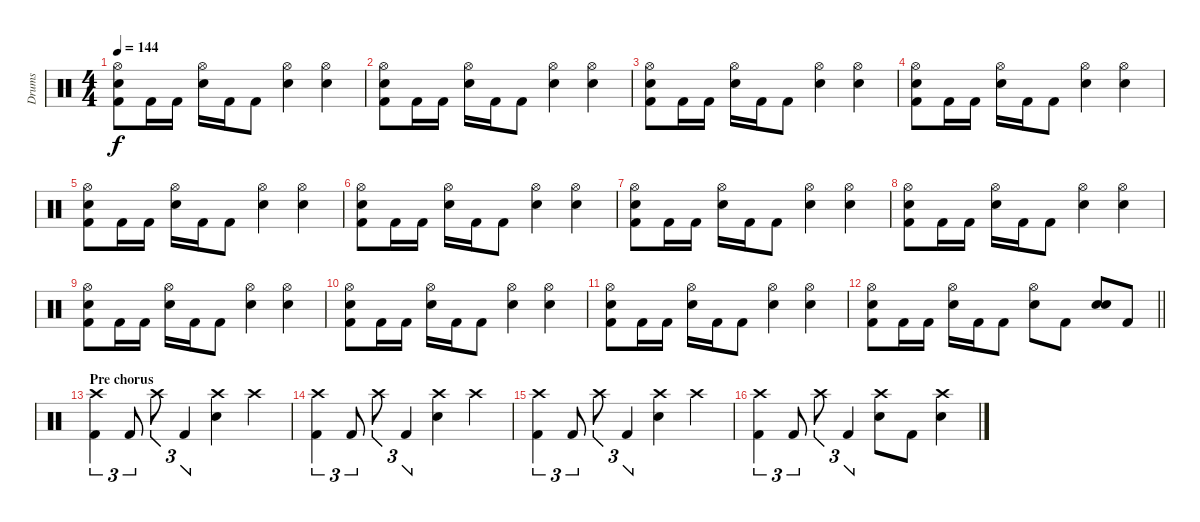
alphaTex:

\track ("Drums" "Drums") {instrument percussion}
\staff {score}
\articulation defaults
\ts (4 4)
\tempo 144
\clef neutral
\ks c
("Hi-Hat (open)" "Snare (hit) 2" "Kick (hit) 2").8{dy f} "Kick (hit) 2".16 "Kick (hit) 2".16 ("Hi-Hat (open)" "Snare (hit) 2").16 "Kick (hit) 2".16 "Kick (hit) 2".8 ("Hi-Hat (open)" "Snare (hit) 2").4 ("Hi-Hat (open)" "Snare (hit) 2").4 |
("Hi-Hat (open)" "Snare (hit) 2" "Kick (hit) 2").8 "Kick (hit) 2".16 "Kick (hit) 2".16 ("Hi-Hat (open)" "Snare (hit) 2").16 "Kick (hit) 2".16 "Kick (hit) 2".8 ("Hi-Hat (open)" "Snare (hit) 2").4 ("Hi-Hat (open)" "Snare (hit) 2").4 |
("Hi-Hat (open)" "Snare (hit) 2" "Kick (hit) 2").8 "Kick (hit) 2".16 "Kick (hit) 2".16 ("Hi-Hat (open)" "Snare (hit) 2").16 "Kick (hit) 2".16 "Kick (hit) 2".8 ("Hi-Hat (open)" "Snare (hit) 2").4 ("Hi-Hat (open)" "Snare (hit) 2").4 |
("Hi-Hat (open)" "Snare (hit) 2" "Kick (hit) 2").8 "Kick (hit) 2".16 "Kick (hit) 2".16 ("Hi-Hat (open)" "Snare (hit) 2").16 "Kick (hit) 2".16 "Kick (hit) 2".8 ("Hi-Hat (open)" "Snare (hit) 2").4 ("Hi-Hat (open)" "Snare (hit) 2").4 |
("Hi-Hat (open)" "Snare (hit) 2" "Kick (hit) 2").8 "Kick (hit) 2".16 "Kick (hit) 2".16 ("Hi-Hat (open)" "Snare (hit) 2").16 "Kick (hit) 2".16 "Kick (hit) 2".8 ("Hi-Hat (open)" "Snare (hit) 2").4 ("Hi-Hat (open)" "Snare (hit) 2").4 |
("Hi-Hat (open)" "Snare (hit) 2" "Kick (hit) 2").8 "Kick (hit) 2".16 "Kick (hit) 2".16 ("Hi-Hat (open)" "Snare (hit) 2").16 "Kick (hit) 2".16 "Kick (hit) 2".8 ("Hi-Hat (open)" "Snare (hit) 2").4 ("Hi-Hat (open)" "Snare (hit) 2").4 |
("Hi-Hat (open)" "Snare (hit) 2" "Kick (hit) 2").8 "Kick (hit) 2".16 "Kick (hit) 2".16 ("Hi-Hat (open)" "Snare (hit) 2").16 "Kick (hit) 2".16 "Kick (hit) 2".8 ("Hi-Hat (open)" "Snare (hit) 2").4 ("Hi-Hat (open)" "Snare (hit) 2").4 |
("Hi-Hat (open)" "Snare (hit) 2" "Kick (hit) 2").8 "Kick (hit) 2".16 "Kick (hit) 2".16 ("Hi-Hat (open)" "Snare (hit) 2").16 "Kick (hit) 2".16 "Kick (hit) 2".8 ("Hi-Hat (open)" "Snare (hit) 2").4 ("Hi-Hat (open)" "Snare (hit) 2").4 |
("Hi-Hat (open)" "Snare (hit) 2" "Kick (hit) 2").8 "Kick (hit) 2".16 "Kick (hit) 2".16 ("Hi-Hat (open)" "Snare (hit) 2").16 "Kick (hit) 2".16 "Kick (hit) 2".8 ("Hi-Hat (open)" "Snare (hit) 2").4 ("Hi-Hat (open)" "Snare (hit) 2").4 |
("Hi-Hat (open)" "Snare (hit) 2" "Kick (hit) 2").8 "Kick (hit) 2".16 "Kick (hit) 2".16 ("Hi-Hat (open)" "Snare (hit) 2").16 "Kick (hit) 2".16 "Kick (hit) 2".8 ("Hi-Hat (open)" "Snare (hit) 2").4 ("Hi-Hat (open)" "Snare (hit) 2").4 |
("Hi-Hat (open)" "Snare (hit) 2" "Kick (hit) 2").8 "Kick (hit) 2".16 "Kick (hit) 2".16 ("Hi-Hat (open)" "Snare (hit) 2").16 "Kick (hit) 2".16 "Kick (hit) 2".8 ("Hi-Hat (open)" "Snare (hit) 2").4 ("Hi-Hat (open)" "Snare (hit) 2").4 |
\barLineRight lightlight
("Hi-Hat (open)" "Snare (hit) 2" "Kick (hit) 2").8 "Kick (hit) 2".16 "Kick (hit) 2".16 ("Hi-Hat (open)" "Snare (hit) 2").16 "Kick (hit) 2".16 "Kick (hit) 2".8 ("Hi-Hat (open)" "Snare (hit) 2").8 "Kick (hit) 2".8 ("Snare (hit) 2" "Snare (hit) 2").8{bd 120} "Kick (hit) 2".8 |
\section ("" "Pre chorus")
("Crash high (hit)" "Kick (hit) 2").4{tu (3 2)} "Kick (hit) 2".8{tu (3 2)} "Crash high (hit)".8{tu (3 2)} "Kick (hit) 2".4{tu (3 2)} ("Crash high (hit)" "Snare (hit) 2").4 "Crash high (hit)".4 |
("Crash high (hit)" "Kick (hit) 2").4{tu (3 2)} "Kick (hit) 2".8{tu (3 2)} "Crash high (hit)".8{tu (3 2)} "Kick (hit) 2".4{tu (3 2)} ("Crash high (hit)" "Snare (hit) 2").4 "Crash high (hit)".4 |
("Crash high (hit)" "Kick (hit) 2").4{tu (3 2)} "Kick (hit) 2".8{tu (3 2)} "Crash high (hit)".8{tu (3 2)} "Kick (hit) 2".4{tu (3 2)} ("Crash high (hit)" "Snare (hit) 2").4 "Crash high (hit)".4 |
("Crash high (hit)" "Kick (hit) 2").4{tu (3 2)} "Kick (hit) 2".8{tu (3 2)} "Crash high (hit)".8{tu (3 2)} "Kick (hit) 2".4{tu (3 2)} ("Crash high (hit)" "Snare (hit) 2").8 "Kick (hit) 2".8 ("Crash high (hit)" "Snare (hit) 2").4
